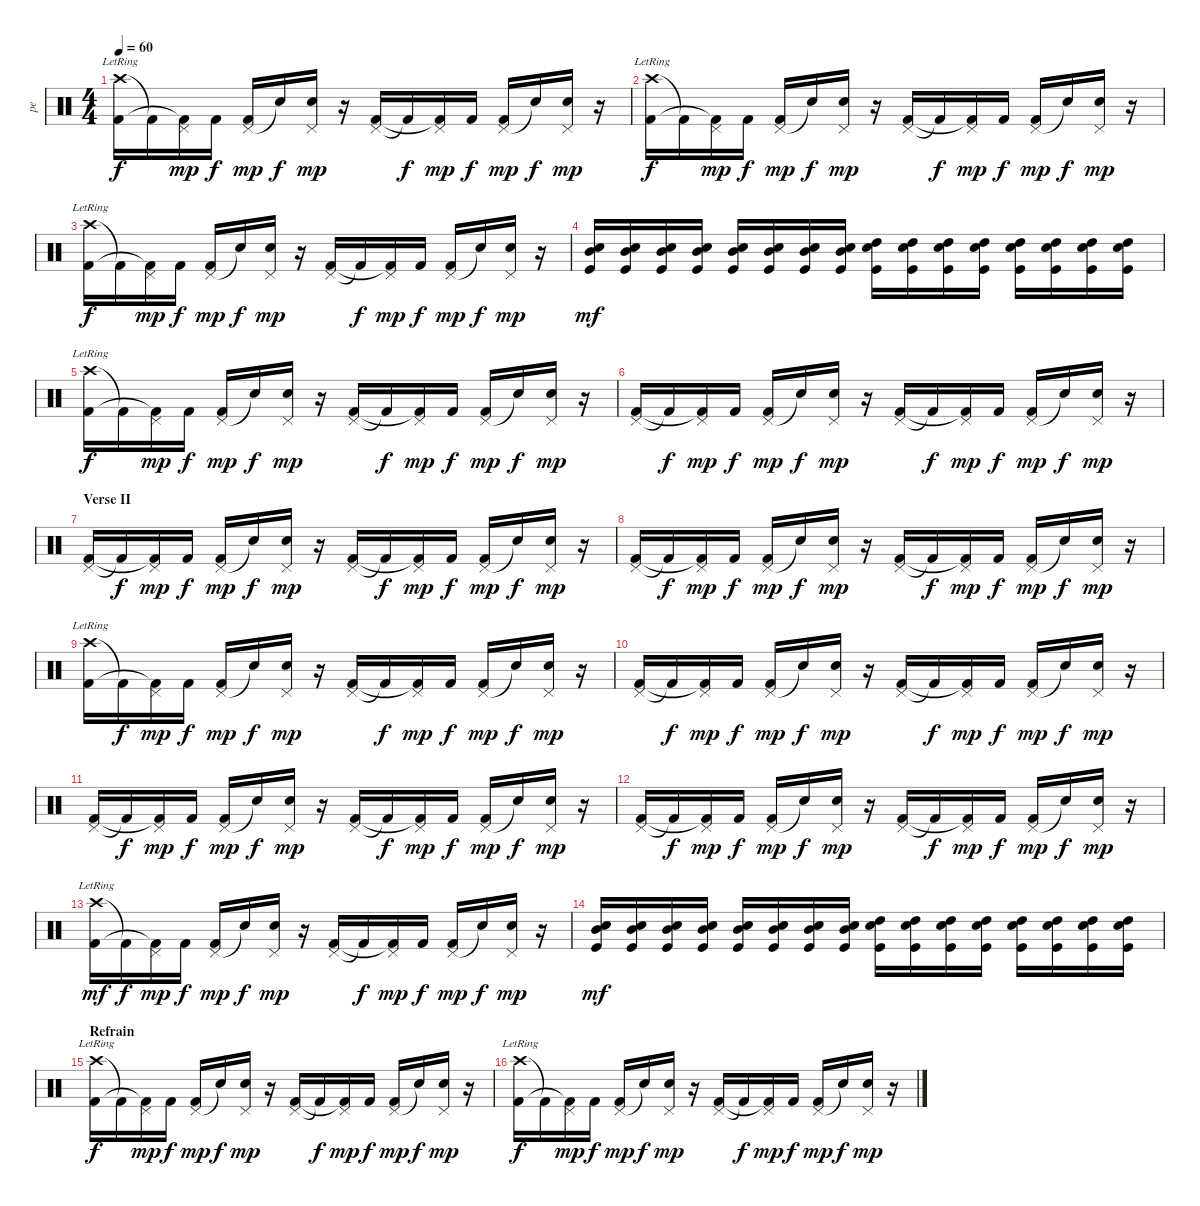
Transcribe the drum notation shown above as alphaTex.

\track ("pe" "pe") {instrument percussion}
\staff {score}
\articulation defaults
\ts (4 4)
\tempo 60
\clef neutral
\ks c
("Crash high (hit)"{lr} "Kick (hit) 2").16{dy f} "Kick (hit) 2"{t}.16 ("Pedal Hi-Hat (hit)" "Kick (hit) 2"{t}).16{dy mp} "Kick (hit) 2".16{dy f} ("Pedal Hi-Hat (hit)" "Kick (hit) 2").16{dy mp} "Snare (hit)"{t}.16{dy f} ("Pedal Hi-Hat (hit)" "Snare (hit) 2").16{dy mp} r.16 ("Pedal Hi-Hat (hit)" "Kick (hit) 2").16 "Kick (hit) 2"{t}.16{dy f} ("Pedal Hi-Hat (hit)" "Kick (hit) 2"{t}).16{dy mp} "Kick (hit) 2".16{dy f} ("Pedal Hi-Hat (hit)" "Kick (hit) 2").16{dy mp} "Snare (hit)"{t}.16{dy f} ("Pedal Hi-Hat (hit)" "Snare (hit) 2").16{dy mp} r.16 |
("Crash high (hit)"{lr} "Kick (hit) 2").16{dy f} "Kick (hit) 2"{t}.16 ("Pedal Hi-Hat (hit)" "Kick (hit) 2"{t}).16{dy mp} "Kick (hit) 2".16{dy f} ("Pedal Hi-Hat (hit)" "Kick (hit) 2").16{dy mp} "Snare (hit)"{t}.16{dy f} ("Pedal Hi-Hat (hit)" "Snare (hit) 2").16{dy mp} r.16 ("Pedal Hi-Hat (hit)" "Kick (hit) 2").16 "Kick (hit) 2"{t}.16{dy f} ("Pedal Hi-Hat (hit)" "Kick (hit) 2"{t}).16{dy mp} "Kick (hit) 2".16{dy f} ("Pedal Hi-Hat (hit)" "Kick (hit) 2").16{dy mp} "Snare (hit)"{t}.16{dy f} ("Pedal Hi-Hat (hit)" "Snare (hit) 2").16{dy mp} r.16 |
("Crash high (hit)"{lr} "Kick (hit) 2").16{dy f} "Kick (hit) 2"{t}.16 ("Pedal Hi-Hat (hit)" "Kick (hit) 2"{t}).16{dy mp} "Kick (hit) 2".16{dy f} ("Pedal Hi-Hat (hit)" "Kick (hit) 2").16{dy mp} "Snare (hit)"{t}.16{dy f} ("Pedal Hi-Hat (hit)" "Snare (hit) 2").16{dy mp} r.16 ("Pedal Hi-Hat (hit)" "Kick (hit) 2").16 "Kick (hit) 2"{t}.16{dy f} ("Pedal Hi-Hat (hit)" "Kick (hit) 2"{t}).16{dy mp} "Kick (hit) 2".16{dy f} ("Pedal Hi-Hat (hit)" "Kick (hit) 2").16{dy mp} "Snare (hit)"{t}.16{dy f} ("Pedal Hi-Hat (hit)" "Snare (hit) 2").16{dy mp} r.16 |
("Snare (hit) 2" "Mid Tom (hit)" "Kick (hit)").16{dy mf} ("Snare (hit) 2" "Mid Tom (hit)" "Kick (hit)").16 ("Snare (hit) 2" "Mid Tom (hit)" "Kick (hit)").16 ("Snare (hit) 2" "Mid Tom (hit)" "Kick (hit)").16 ("Snare (hit) 2" "Mid Tom (hit)" "Kick (hit)").16 ("Snare (hit) 2" "Mid Tom (hit)" "Kick (hit)").16 ("Snare (hit) 2" "Mid Tom (hit)" "Kick (hit)").16 ("Snare (hit) 2" "Mid Tom (hit)" "Kick (hit)").16 ("Snare (hit) 2" "High Tom (hit)" "Kick (hit)").16 ("Snare (hit) 2" "High Tom (hit)" "Kick (hit)").16 ("Snare (hit) 2" "High Tom (hit)" "Kick (hit)").16 ("Snare (hit) 2" "High Tom (hit)" "Kick (hit)").16 ("Snare (hit) 2" "High Tom (hit)" "Kick (hit)").16 ("Snare (hit) 2" "High Tom (hit)" "Kick (hit)").16 ("Snare (hit) 2" "High Tom (hit)" "Kick (hit)").16 ("Snare (hit) 2" "High Tom (hit)" "Kick (hit)").16 |
("Crash high (hit)"{lr} "Kick (hit) 2").16{dy f} "Kick (hit) 2"{t}.16 ("Pedal Hi-Hat (hit)" "Kick (hit) 2"{t}).16{dy mp} "Kick (hit) 2".16{dy f} ("Pedal Hi-Hat (hit)" "Kick (hit) 2").16{dy mp} "Snare (hit)"{t}.16{dy f} ("Pedal Hi-Hat (hit)" "Snare (hit) 2").16{dy mp} r.16 ("Pedal Hi-Hat (hit)" "Kick (hit) 2").16 "Kick (hit) 2"{t}.16{dy f} ("Pedal Hi-Hat (hit)" "Kick (hit) 2"{t}).16{dy mp} "Kick (hit) 2".16{dy f} ("Pedal Hi-Hat (hit)" "Kick (hit) 2").16{dy mp} "Snare (hit)"{t}.16{dy f} ("Pedal Hi-Hat (hit)" "Snare (hit) 2").16{dy mp} r.16 |
("Pedal Hi-Hat (hit)" "Kick (hit) 2").16 "Kick (hit) 2"{t}.16{dy f} ("Pedal Hi-Hat (hit)" "Kick (hit) 2"{t}).16{dy mp} "Kick (hit) 2".16{dy f} ("Pedal Hi-Hat (hit)" "Kick (hit) 2").16{dy mp} "Snare (hit)"{t}.16{dy f} ("Pedal Hi-Hat (hit)" "Snare (hit) 2").16{dy mp} r.16 ("Pedal Hi-Hat (hit)" "Kick (hit) 2").16 "Kick (hit) 2"{t}.16{dy f} ("Pedal Hi-Hat (hit)" "Kick (hit) 2"{t}).16{dy mp} "Kick (hit) 2".16{dy f} ("Pedal Hi-Hat (hit)" "Kick (hit) 2").16{dy mp} "Snare (hit)"{t}.16{dy f} ("Pedal Hi-Hat (hit)" "Snare (hit) 2").16{dy mp} r.16 |
\section ("" "Verse II")
("Pedal Hi-Hat (hit)" "Kick (hit) 2").16 "Kick (hit) 2"{t}.16{dy f} ("Pedal Hi-Hat (hit)" "Kick (hit) 2"{t}).16{dy mp} "Kick (hit) 2".16{dy f} ("Pedal Hi-Hat (hit)" "Kick (hit) 2").16{dy mp} "Snare (hit)"{t}.16{dy f} ("Pedal Hi-Hat (hit)" "Snare (hit) 2").16{dy mp} r.16 ("Pedal Hi-Hat (hit)" "Kick (hit) 2").16 "Kick (hit) 2"{t}.16{dy f} ("Pedal Hi-Hat (hit)" "Kick (hit) 2"{t}).16{dy mp} "Kick (hit) 2".16{dy f} ("Pedal Hi-Hat (hit)" "Kick (hit) 2").16{dy mp} "Snare (hit)"{t}.16{dy f} ("Pedal Hi-Hat (hit)" "Snare (hit) 2").16{dy mp} r.16 |
("Pedal Hi-Hat (hit)" "Kick (hit) 2").16 "Kick (hit) 2"{t}.16{dy f} ("Pedal Hi-Hat (hit)" "Kick (hit) 2"{t}).16{dy mp} "Kick (hit) 2".16{dy f} ("Pedal Hi-Hat (hit)" "Kick (hit) 2").16{dy mp} "Snare (hit)"{t}.16{dy f} ("Pedal Hi-Hat (hit)" "Snare (hit) 2").16{dy mp} r.16 ("Pedal Hi-Hat (hit)" "Kick (hit) 2").16 "Kick (hit) 2"{t}.16{dy f} ("Pedal Hi-Hat (hit)" "Kick (hit) 2"{t}).16{dy mp} "Kick (hit) 2".16{dy f} ("Pedal Hi-Hat (hit)" "Kick (hit) 2").16{dy mp} "Snare (hit)"{t}.16{dy f} ("Pedal Hi-Hat (hit)" "Snare (hit) 2").16{dy mp} r.16 |
("Crash high (hit)"{lr} "Kick (hit) 2").16 "Kick (hit) 2"{t}.16{dy f} ("Pedal Hi-Hat (hit)" "Kick (hit) 2"{t}).16{dy mp} "Kick (hit) 2".16{dy f} ("Pedal Hi-Hat (hit)" "Kick (hit) 2").16{dy mp} "Snare (hit)"{t}.16{dy f} ("Pedal Hi-Hat (hit)" "Snare (hit) 2").16{dy mp} r.16 ("Pedal Hi-Hat (hit)" "Kick (hit) 2").16 "Kick (hit) 2"{t}.16{dy f} ("Pedal Hi-Hat (hit)" "Kick (hit) 2"{t}).16{dy mp} "Kick (hit) 2".16{dy f} ("Pedal Hi-Hat (hit)" "Kick (hit) 2").16{dy mp} "Snare (hit)"{t}.16{dy f} ("Pedal Hi-Hat (hit)" "Snare (hit) 2").16{dy mp} r.16 |
("Pedal Hi-Hat (hit)" "Kick (hit) 2").16 "Kick (hit) 2"{t}.16{dy f} ("Pedal Hi-Hat (hit)" "Kick (hit) 2"{t}).16{dy mp} "Kick (hit) 2".16{dy f} ("Pedal Hi-Hat (hit)" "Kick (hit) 2").16{dy mp} "Snare (hit)"{t}.16{dy f} ("Pedal Hi-Hat (hit)" "Snare (hit) 2").16{dy mp} r.16 ("Pedal Hi-Hat (hit)" "Kick (hit) 2").16 "Kick (hit) 2"{t}.16{dy f} ("Pedal Hi-Hat (hit)" "Kick (hit) 2"{t}).16{dy mp} "Kick (hit) 2".16{dy f} ("Pedal Hi-Hat (hit)" "Kick (hit) 2").16{dy mp} "Snare (hit)"{t}.16{dy f} ("Pedal Hi-Hat (hit)" "Snare (hit) 2").16{dy mp} r.16 |
("Pedal Hi-Hat (hit)" "Kick (hit) 2").16 "Kick (hit) 2"{t}.16{dy f} ("Pedal Hi-Hat (hit)" "Kick (hit) 2"{t}).16{dy mp} "Kick (hit) 2".16{dy f} ("Pedal Hi-Hat (hit)" "Kick (hit) 2").16{dy mp} "Snare (hit)"{t}.16{dy f} ("Pedal Hi-Hat (hit)" "Snare (hit) 2").16{dy mp} r.16 ("Pedal Hi-Hat (hit)" "Kick (hit) 2").16 "Kick (hit) 2"{t}.16{dy f} ("Pedal Hi-Hat (hit)" "Kick (hit) 2"{t}).16{dy mp} "Kick (hit) 2".16{dy f} ("Pedal Hi-Hat (hit)" "Kick (hit) 2").16{dy mp} "Snare (hit)"{t}.16{dy f} ("Pedal Hi-Hat (hit)" "Snare (hit) 2").16{dy mp} r.16 |
("Pedal Hi-Hat (hit)" "Kick (hit) 2").16 "Kick (hit) 2"{t}.16{dy f} ("Pedal Hi-Hat (hit)" "Kick (hit) 2"{t}).16{dy mp} "Kick (hit) 2".16{dy f} ("Pedal Hi-Hat (hit)" "Kick (hit) 2").16{dy mp} "Snare (hit)"{t}.16{dy f} ("Pedal Hi-Hat (hit)" "Snare (hit) 2").16{dy mp} r.16 ("Pedal Hi-Hat (hit)" "Kick (hit) 2").16 "Kick (hit) 2"{t}.16{dy f} ("Pedal Hi-Hat (hit)" "Kick (hit) 2"{t}).16{dy mp} "Kick (hit) 2".16{dy f} ("Pedal Hi-Hat (hit)" "Kick (hit) 2").16{dy mp} "Snare (hit)"{t}.16{dy f} ("Pedal Hi-Hat (hit)" "Snare (hit) 2").16{dy mp} r.16 |
("Crash high (hit)"{lr} "Kick (hit) 2").16{dy mf} "Kick (hit) 2"{t}.16{dy f} ("Pedal Hi-Hat (hit)" "Kick (hit) 2"{t}).16{dy mp} "Kick (hit) 2".16{dy f} ("Pedal Hi-Hat (hit)" "Kick (hit) 2").16{dy mp} "Snare (hit)"{t}.16{dy f} ("Pedal Hi-Hat (hit)" "Snare (hit) 2").16{dy mp} r.16 ("Pedal Hi-Hat (hit)" "Kick (hit) 2").16 "Kick (hit) 2"{t}.16{dy f} ("Pedal Hi-Hat (hit)" "Kick (hit) 2"{t}).16{dy mp} "Kick (hit) 2".16{dy f} ("Pedal Hi-Hat (hit)" "Kick (hit) 2").16{dy mp} "Snare (hit)"{t}.16{dy f} ("Pedal Hi-Hat (hit)" "Snare (hit) 2").16{dy mp} r.16 |
("Snare (hit) 2" "Mid Tom (hit)" "Kick (hit)").16{dy mf volume 7} ("Snare (hit) 2" "Mid Tom (hit)" "Kick (hit)").16{volume 14} ("Snare (hit) 2" "Mid Tom (hit)" "Kick (hit)").16 ("Snare (hit) 2" "Mid Tom (hit)" "Kick (hit)").16 ("Snare (hit) 2" "Mid Tom (hit)" "Kick (hit)").16 ("Snare (hit) 2" "Mid Tom (hit)" "Kick (hit)").16 ("Snare (hit) 2" "Mid Tom (hit)" "Kick (hit)").16 ("Snare (hit) 2" "Mid Tom (hit)" "Kick (hit)").16 ("Snare (hit) 2" "High Tom (hit)" "Kick (hit)").16 ("Snare (hit) 2" "High Tom (hit)" "Kick (hit)").16 ("Snare (hit) 2" "High Tom (hit)" "Kick (hit)").16 ("Snare (hit) 2" "High Tom (hit)" "Kick (hit)").16 ("Snare (hit) 2" "High Tom (hit)" "Kick (hit)").16 ("Snare (hit) 2" "High Tom (hit)" "Kick (hit)").16 ("Snare (hit) 2" "High Tom (hit)" "Kick (hit)").16 ("Snare (hit) 2" "High Tom (hit)" "Kick (hit)").16 |
\section ("" "Refrain")
("Crash high (hit)"{lr} "Kick (hit) 2").16{dy f} "Kick (hit) 2"{t}.16 ("Pedal Hi-Hat (hit)" "Kick (hit) 2"{t}).16{dy mp} "Kick (hit) 2".16{dy f} ("Pedal Hi-Hat (hit)" "Kick (hit) 2").16{dy mp} "Snare (hit)"{t}.16{dy f} ("Pedal Hi-Hat (hit)" "Snare (hit) 2").16{dy mp} r.16 ("Pedal Hi-Hat (hit)" "Kick (hit) 2").16 "Kick (hit) 2"{t}.16{dy f} ("Pedal Hi-Hat (hit)" "Kick (hit) 2"{t}).16{dy mp} "Kick (hit) 2".16{dy f} ("Pedal Hi-Hat (hit)" "Kick (hit) 2").16{dy mp} "Snare (hit)"{t}.16{dy f} ("Pedal Hi-Hat (hit)" "Snare (hit) 2").16{dy mp} r.16 |
("Crash high (hit)"{lr} "Kick (hit) 2").16{dy f} "Kick (hit) 2"{t}.16 ("Pedal Hi-Hat (hit)" "Kick (hit) 2"{t}).16{dy mp} "Kick (hit) 2".16{dy f} ("Pedal Hi-Hat (hit)" "Kick (hit) 2").16{dy mp} "Snare (hit)"{t}.16{dy f} ("Pedal Hi-Hat (hit)" "Snare (hit) 2").16{dy mp} r.16 ("Pedal Hi-Hat (hit)" "Kick (hit) 2").16 "Kick (hit) 2"{t}.16{dy f} ("Pedal Hi-Hat (hit)" "Kick (hit) 2"{t}).16{dy mp} "Kick (hit) 2".16{dy f} ("Pedal Hi-Hat (hit)" "Kick (hit) 2").16{dy mp} "Snare (hit)"{t}.16{dy f} ("Pedal Hi-Hat (hit)" "Snare (hit) 2").16{dy mp} r.16
